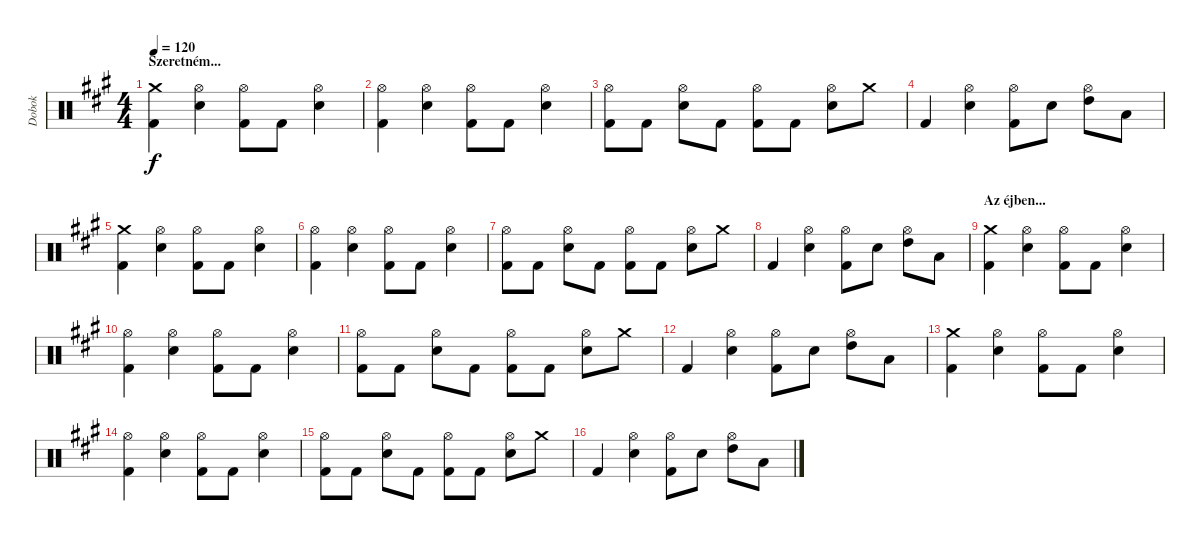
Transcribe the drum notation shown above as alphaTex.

\track ("Dobok" "Dobok") {instrument percussion}
\staff {score}
\articulation defaults
\ts (4 4)
\section ("" "Szeretném...")
\tempo 120
\clef neutral
\ks a
("Crash medium (hit)" "Kick (hit) 2").4{dy f} ("Hi-Hat (open)" "Snare (hit) 2").4 ("Hi-Hat (open)" "Kick (hit) 2").8 "Kick (hit) 2".8 ("Hi-Hat (open)" "Snare (hit) 2").4 |
("Hi-Hat (open)" "Kick (hit) 2").4 ("Hi-Hat (open)" "Snare (hit) 2").4 ("Hi-Hat (open)" "Kick (hit) 2").8 "Kick (hit) 2".8 ("Hi-Hat (open)" "Snare (hit) 2").4 |
("Hi-Hat (open)" "Kick (hit) 2").8 "Kick (hit) 2".8 ("Hi-Hat (open)" "Snare (hit) 2").8 "Kick (hit) 2".8 ("Hi-Hat (open)" "Kick (hit) 2").8 "Kick (hit) 2".8 ("Hi-Hat (open)" "Snare (hit) 2").8 "Crash medium (hit)".8 |
"Kick (hit) 2".4 ("Hi-Hat (open)" "Snare (hit) 2").4 ("Hi-Hat (open)" "Kick (hit) 2").8 "Snare (hit) 2".8 ("Hi-Hat (open)" "High Tom (hit)").8 "Low Tom (hit)".8 |
("Crash medium (hit)" "Kick (hit) 2").4 ("Hi-Hat (open)" "Snare (hit) 2").4 ("Hi-Hat (open)" "Kick (hit) 2").8 "Kick (hit) 2".8 ("Hi-Hat (open)" "Snare (hit) 2").4 |
("Hi-Hat (open)" "Kick (hit) 2").4 ("Hi-Hat (open)" "Snare (hit) 2").4 ("Hi-Hat (open)" "Kick (hit) 2").8 "Kick (hit) 2".8 ("Hi-Hat (open)" "Snare (hit) 2").4 |
("Hi-Hat (open)" "Kick (hit) 2").8 "Kick (hit) 2".8 ("Hi-Hat (open)" "Snare (hit) 2").8 "Kick (hit) 2".8 ("Hi-Hat (open)" "Kick (hit) 2").8 "Kick (hit) 2".8 ("Hi-Hat (open)" "Snare (hit) 2").8 "Crash medium (hit)".8 |
"Kick (hit) 2".4 ("Hi-Hat (open)" "Snare (hit) 2").4 ("Hi-Hat (open)" "Kick (hit) 2").8 "Snare (hit) 2".8 ("Hi-Hat (open)" "High Tom (hit)").8 "Low Tom (hit)".8 |
\section ("" "Az éjben...")
("Crash medium (hit)" "Kick (hit) 2").4 ("Hi-Hat (open)" "Snare (hit) 2").4 ("Hi-Hat (open)" "Kick (hit) 2").8 "Kick (hit) 2".8 ("Hi-Hat (open)" "Snare (hit) 2").4 |
("Hi-Hat (open)" "Kick (hit) 2").4 ("Hi-Hat (open)" "Snare (hit) 2").4 ("Hi-Hat (open)" "Kick (hit) 2").8 "Kick (hit) 2".8 ("Hi-Hat (open)" "Snare (hit) 2").4 |
("Hi-Hat (open)" "Kick (hit) 2").8 "Kick (hit) 2".8 ("Hi-Hat (open)" "Snare (hit) 2").8 "Kick (hit) 2".8 ("Hi-Hat (open)" "Kick (hit) 2").8 "Kick (hit) 2".8 ("Hi-Hat (open)" "Snare (hit) 2").8 "Crash medium (hit)".8 |
"Kick (hit) 2".4 ("Hi-Hat (open)" "Snare (hit) 2").4 ("Hi-Hat (open)" "Kick (hit) 2").8 "Snare (hit) 2".8 ("Hi-Hat (open)" "High Tom (hit)").8 "Low Tom (hit)".8 |
("Crash medium (hit)" "Kick (hit) 2").4 ("Hi-Hat (open)" "Snare (hit) 2").4 ("Hi-Hat (open)" "Kick (hit) 2").8 "Kick (hit) 2".8 ("Hi-Hat (open)" "Snare (hit) 2").4 |
("Hi-Hat (open)" "Kick (hit) 2").4 ("Hi-Hat (open)" "Snare (hit) 2").4 ("Hi-Hat (open)" "Kick (hit) 2").8 "Kick (hit) 2".8 ("Hi-Hat (open)" "Snare (hit) 2").4 |
("Hi-Hat (open)" "Kick (hit) 2").8 "Kick (hit) 2".8 ("Hi-Hat (open)" "Snare (hit) 2").8 "Kick (hit) 2".8 ("Hi-Hat (open)" "Kick (hit) 2").8 "Kick (hit) 2".8 ("Hi-Hat (open)" "Snare (hit) 2").8 "Crash medium (hit)".8 |
"Kick (hit) 2".4 ("Hi-Hat (open)" "Snare (hit) 2").4 ("Hi-Hat (open)" "Kick (hit) 2").8 "Snare (hit) 2".8 ("Hi-Hat (open)" "High Tom (hit)").8 "Low Tom (hit)".8
